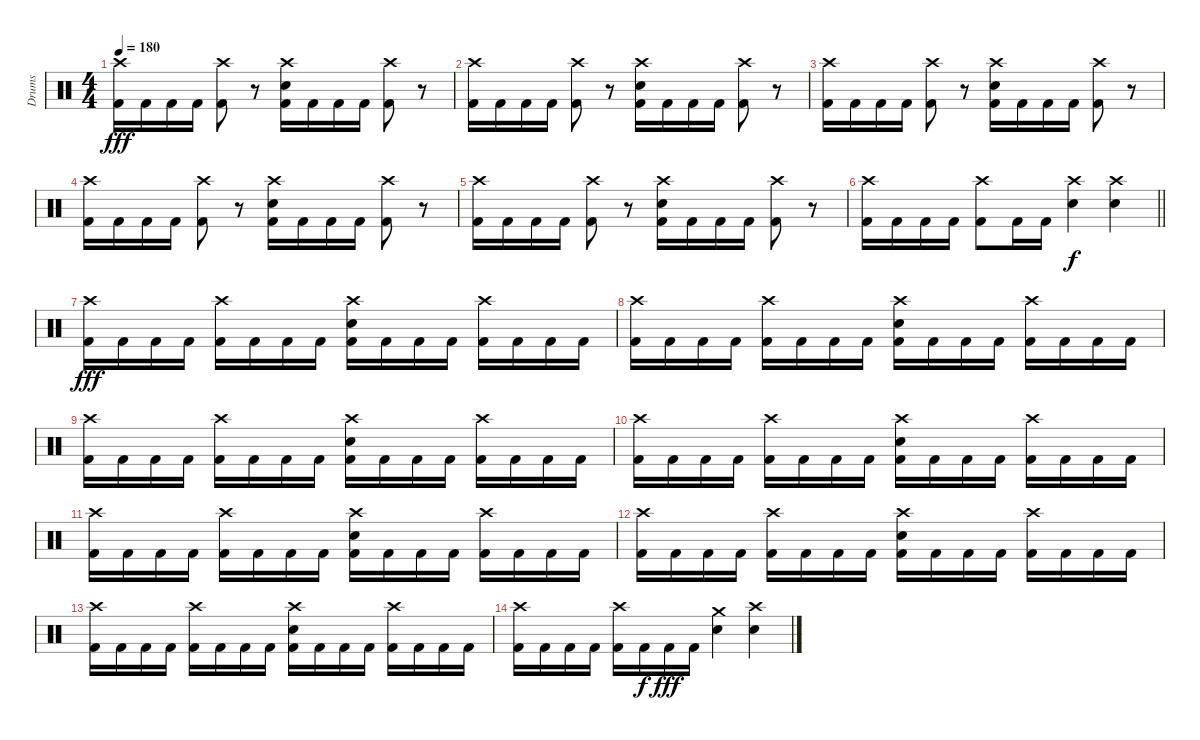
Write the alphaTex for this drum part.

\track ("Drums" "Drums") {instrument percussion}
\staff {score}
\articulation defaults
\ts (4 4)
\tempo 180
\clef neutral
\ks c
("Crash high (hit)" "Kick (hit) 2").16{dy fff} "Kick (hit) 2".16 "Kick (hit) 2".16 "Kick (hit) 2".16 ("Crash high (hit)" "Kick (hit) 2").8 r.8 ("Crash high (hit)" "Electric Snare (hit)" "Kick (hit) 2").16 "Kick (hit) 2".16 "Kick (hit) 2".16 "Kick (hit) 2".16 ("Crash high (hit)" "Kick (hit) 2").8 r.8 |
("Crash high (hit)" "Kick (hit) 2").16 "Kick (hit) 2".16 "Kick (hit) 2".16 "Kick (hit) 2".16 ("Crash high (hit)" "Kick (hit) 2").8 r.8 ("Crash high (hit)" "Electric Snare (hit)" "Kick (hit) 2").16 "Kick (hit) 2".16 "Kick (hit) 2".16 "Kick (hit) 2".16 ("Crash high (hit)" "Kick (hit) 2").8 r.8 |
("Crash high (hit)" "Kick (hit) 2").16 "Kick (hit) 2".16 "Kick (hit) 2".16 "Kick (hit) 2".16 ("Crash high (hit)" "Kick (hit) 2").8 r.8 ("Crash high (hit)" "Electric Snare (hit)" "Kick (hit) 2").16 "Kick (hit) 2".16 "Kick (hit) 2".16 "Kick (hit) 2".16 ("Crash high (hit)" "Kick (hit) 2").8 r.8 |
("Crash high (hit)" "Kick (hit) 2").16 "Kick (hit) 2".16 "Kick (hit) 2".16 "Kick (hit) 2".16 ("Crash high (hit)" "Kick (hit) 2").8 r.8 ("Crash high (hit)" "Electric Snare (hit)" "Kick (hit) 2").16 "Kick (hit) 2".16 "Kick (hit) 2".16 "Kick (hit) 2".16 ("Crash high (hit)" "Kick (hit) 2").8 r.8 |
("Crash high (hit)" "Kick (hit) 2").16 "Kick (hit) 2".16 "Kick (hit) 2".16 "Kick (hit) 2".16 ("Crash high (hit)" "Kick (hit) 2").8 r.8 ("Crash high (hit)" "Electric Snare (hit)" "Kick (hit) 2").16 "Kick (hit) 2".16 "Kick (hit) 2".16 "Kick (hit) 2".16 ("Crash high (hit)" "Kick (hit) 2").8 r.8 |
\barLineRight lightlight
("Crash high (hit)" "Kick (hit) 2").16 "Kick (hit) 2".16 "Kick (hit) 2".16 "Kick (hit) 2".16 ("Crash high (hit)" "Kick (hit) 2").8 "Kick (hit) 2".16 "Kick (hit) 2".16 ("Crash high (hit)" "Electric Snare (hit)").4{dy f} ("Crash high (hit)" "Electric Snare (hit)").4 |
\section ("" "")
("Crash high (hit)" "Kick (hit) 2").16{dy fff volume 10} "Kick (hit) 2".16 "Kick (hit) 2".16 "Kick (hit) 2".16 ("Crash high (hit)" "Kick (hit) 2").16 "Kick (hit) 2".16 "Kick (hit) 2".16 "Kick (hit) 2".16 ("Crash high (hit)" "Electric Snare (hit)" "Kick (hit) 2").16 "Kick (hit) 2".16 "Kick (hit) 2".16 "Kick (hit) 2".16 ("Crash high (hit)" "Kick (hit) 2").16 "Kick (hit) 2".16 "Kick (hit) 2".16 "Kick (hit) 2".16 |
("Crash high (hit)" "Kick (hit) 2").16 "Kick (hit) 2".16 "Kick (hit) 2".16 "Kick (hit) 2".16 ("Crash high (hit)" "Kick (hit) 2").16 "Kick (hit) 2".16 "Kick (hit) 2".16 "Kick (hit) 2".16 ("Crash high (hit)" "Electric Snare (hit)" "Kick (hit) 2").16 "Kick (hit) 2".16 "Kick (hit) 2".16 "Kick (hit) 2".16 ("Crash high (hit)" "Kick (hit) 2").16 "Kick (hit) 2".16 "Kick (hit) 2".16 "Kick (hit) 2".16 |
("Crash high (hit)" "Kick (hit) 2").16 "Kick (hit) 2".16 "Kick (hit) 2".16 "Kick (hit) 2".16 ("Crash high (hit)" "Kick (hit) 2").16 "Kick (hit) 2".16 "Kick (hit) 2".16 "Kick (hit) 2".16 ("Crash high (hit)" "Electric Snare (hit)" "Kick (hit) 2").16 "Kick (hit) 2".16 "Kick (hit) 2".16 "Kick (hit) 2".16 ("Crash high (hit)" "Kick (hit) 2").16 "Kick (hit) 2".16 "Kick (hit) 2".16 "Kick (hit) 2".16 |
("Crash high (hit)" "Kick (hit) 2").16 "Kick (hit) 2".16 "Kick (hit) 2".16 "Kick (hit) 2".16 ("Crash high (hit)" "Kick (hit) 2").16 "Kick (hit) 2".16 "Kick (hit) 2".16 "Kick (hit) 2".16 ("Crash high (hit)" "Electric Snare (hit)" "Kick (hit) 2").16 "Kick (hit) 2".16 "Kick (hit) 2".16 "Kick (hit) 2".16 ("Crash high (hit)" "Kick (hit) 2").16 "Kick (hit) 2".16 "Kick (hit) 2".16 "Kick (hit) 2".16 |
("Crash high (hit)" "Kick (hit) 2").16 "Kick (hit) 2".16 "Kick (hit) 2".16 "Kick (hit) 2".16 ("Crash high (hit)" "Kick (hit) 2").16 "Kick (hit) 2".16 "Kick (hit) 2".16 "Kick (hit) 2".16 ("Crash high (hit)" "Electric Snare (hit)" "Kick (hit) 2").16 "Kick (hit) 2".16 "Kick (hit) 2".16 "Kick (hit) 2".16 ("Crash high (hit)" "Kick (hit) 2").16 "Kick (hit) 2".16 "Kick (hit) 2".16 "Kick (hit) 2".16 |
("Crash high (hit)" "Kick (hit) 2").16 "Kick (hit) 2".16 "Kick (hit) 2".16 "Kick (hit) 2".16 ("Crash high (hit)" "Kick (hit) 2").16 "Kick (hit) 2".16 "Kick (hit) 2".16 "Kick (hit) 2".16 ("Crash high (hit)" "Electric Snare (hit)" "Kick (hit) 2").16 "Kick (hit) 2".16 "Kick (hit) 2".16 "Kick (hit) 2".16 ("Crash high (hit)" "Kick (hit) 2").16 "Kick (hit) 2".16 "Kick (hit) 2".16 "Kick (hit) 2".16 |
("Crash high (hit)" "Kick (hit) 2").16 "Kick (hit) 2".16 "Kick (hit) 2".16 "Kick (hit) 2".16 ("Crash high (hit)" "Kick (hit) 2").16 "Kick (hit) 2".16 "Kick (hit) 2".16 "Kick (hit) 2".16 ("Crash high (hit)" "Electric Snare (hit)" "Kick (hit) 2").16 "Kick (hit) 2".16 "Kick (hit) 2".16 "Kick (hit) 2".16 ("Crash high (hit)" "Kick (hit) 2").16 "Kick (hit) 2".16 "Kick (hit) 2".16 "Kick (hit) 2".16 |
("Crash high (hit)" "Kick (hit) 2").16 "Kick (hit) 2".16 "Kick (hit) 2".16 "Kick (hit) 2".16 ("Crash high (hit)" "Kick (hit) 2").16 "Kick (hit) 2".16{dy f} "Kick (hit) 2".16{dy fff} "Kick (hit) 2".16 ("Crash medium (hit)" "Electric Snare (hit)").4 ("Crash high (hit)" "Electric Snare (hit)").4
